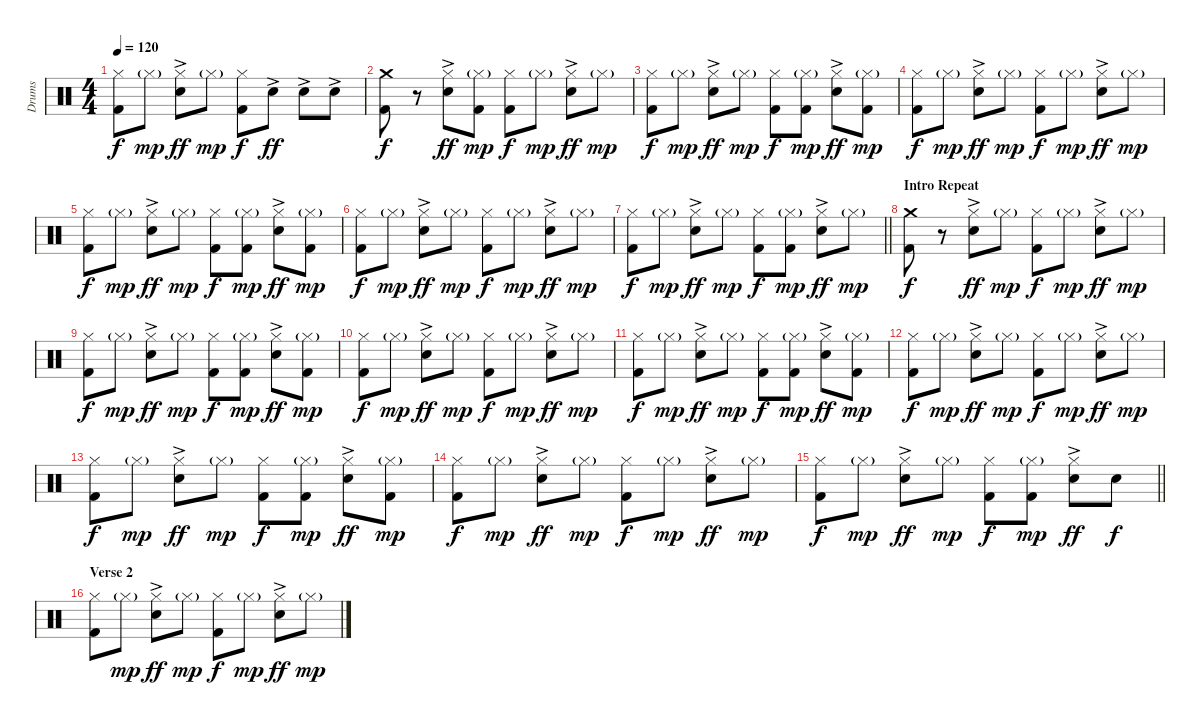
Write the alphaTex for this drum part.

\track ("Drums" "Drums") {instrument percussion}
\staff {score}
\articulation defaults
\ts (4 4)
\tempo 120
\clef neutral
\ks c
("Hi-Hat (closed)" "Kick (hit) 2").8{dy f} "Hi-Hat (closed)"{g}.8{dy mp} ("Hi-Hat (closed)" "Snare (hit) 2"{ac}).8{dy ff} "Hi-Hat (closed)"{g}.8{dy mp} ("Hi-Hat (closed)" "Kick (hit) 2").8{dy f} "Snare (hit) 2"{ac}.8{dy ff} "Snare (hit) 2"{ac}.8 "Snare (hit) 2"{ac}.8 |
("Crash medium (hit)" "Kick (hit) 2").8{dy f} r.8 ("Hi-Hat (closed)" "Snare (hit) 2"{ac}).8{dy ff} ("Hi-Hat (closed)"{g} "Kick (hit) 2").8{dy mp} ("Hi-Hat (closed)" "Kick (hit) 2").8{dy f} "Hi-Hat (closed)"{g}.8{dy mp} ("Hi-Hat (closed)" "Snare (hit) 2"{ac}).8{dy ff} "Hi-Hat (closed)"{g}.8{dy mp} |
("Hi-Hat (closed)" "Kick (hit) 2").8{dy f} "Hi-Hat (closed)"{g}.8{dy mp} ("Hi-Hat (closed)" "Snare (hit) 2"{ac}).8{dy ff} "Hi-Hat (closed)"{g}.8{dy mp} ("Hi-Hat (closed)" "Kick (hit) 2").8{dy f} ("Hi-Hat (closed)"{g} "Kick (hit) 2").8{dy mp} ("Hi-Hat (closed)" "Snare (hit) 2"{ac}).8{dy ff} ("Hi-Hat (closed)"{g} "Kick (hit) 2").8{dy mp} |
("Hi-Hat (closed)" "Kick (hit) 2").8{dy f} "Hi-Hat (closed)"{g}.8{dy mp} ("Hi-Hat (closed)" "Snare (hit) 2"{ac}).8{dy ff} "Hi-Hat (closed)"{g}.8{dy mp} ("Hi-Hat (closed)" "Kick (hit) 2").8{dy f} "Hi-Hat (closed)"{g}.8{dy mp} ("Hi-Hat (closed)" "Snare (hit) 2"{ac}).8{dy ff} "Hi-Hat (closed)"{g}.8{dy mp} |
("Hi-Hat (closed)" "Kick (hit) 2").8{dy f} "Hi-Hat (closed)"{g}.8{dy mp} ("Hi-Hat (closed)" "Snare (hit) 2"{ac}).8{dy ff} "Hi-Hat (closed)"{g}.8{dy mp} ("Hi-Hat (closed)" "Kick (hit) 2").8{dy f} ("Hi-Hat (closed)"{g} "Kick (hit) 2").8{dy mp} ("Hi-Hat (closed)" "Snare (hit) 2"{ac}).8{dy ff} ("Hi-Hat (closed)"{g} "Kick (hit) 2").8{dy mp} |
("Hi-Hat (closed)" "Kick (hit) 2").8{dy f} "Hi-Hat (closed)"{g}.8{dy mp} ("Hi-Hat (closed)" "Snare (hit) 2"{ac}).8{dy ff} "Hi-Hat (closed)"{g}.8{dy mp} ("Hi-Hat (closed)" "Kick (hit) 2").8{dy f} "Hi-Hat (closed)"{g}.8{dy mp} ("Hi-Hat (closed)" "Snare (hit) 2"{ac}).8{dy ff} "Hi-Hat (closed)"{g}.8{dy mp} |
\barLineRight lightlight
("Hi-Hat (closed)" "Kick (hit) 2").8{dy f} "Hi-Hat (closed)"{g}.8{dy mp} ("Hi-Hat (closed)" "Snare (hit) 2"{ac}).8{dy ff} "Hi-Hat (closed)"{g}.8{dy mp} ("Hi-Hat (closed)" "Kick (hit) 2").8{dy f} ("Hi-Hat (closed)"{g} "Kick (hit) 2").8{dy mp} ("Hi-Hat (closed)" "Snare (hit) 2"{ac}).8{dy ff} "Hi-Hat (closed)"{g}.8{dy mp} |
\section ("" "Intro Repeat")
("Crash medium (hit)" "Kick (hit) 2").8{dy f} r.8 ("Hi-Hat (closed)" "Snare (hit) 2"{ac}).8{dy ff} "Hi-Hat (closed)"{g}.8{dy mp} ("Hi-Hat (closed)" "Kick (hit) 2").8{dy f} "Hi-Hat (closed)"{g}.8{dy mp} ("Hi-Hat (closed)" "Snare (hit) 2"{ac}).8{dy ff} "Hi-Hat (closed)"{g}.8{dy mp} |
("Hi-Hat (closed)" "Kick (hit) 2").8{dy f} "Hi-Hat (closed)"{g}.8{dy mp} ("Hi-Hat (closed)" "Snare (hit) 2"{ac}).8{dy ff} "Hi-Hat (closed)"{g}.8{dy mp} ("Hi-Hat (closed)" "Kick (hit) 2").8{dy f} ("Hi-Hat (closed)"{g} "Kick (hit) 2").8{dy mp} ("Hi-Hat (closed)" "Snare (hit) 2"{ac}).8{dy ff} ("Hi-Hat (closed)"{g} "Kick (hit) 2").8{dy mp} |
("Hi-Hat (closed)" "Kick (hit) 2").8{dy f} "Hi-Hat (closed)"{g}.8{dy mp} ("Hi-Hat (closed)" "Snare (hit) 2"{ac}).8{dy ff} "Hi-Hat (closed)"{g}.8{dy mp} ("Hi-Hat (closed)" "Kick (hit) 2").8{dy f} "Hi-Hat (closed)"{g}.8{dy mp} ("Hi-Hat (closed)" "Snare (hit) 2"{ac}).8{dy ff} "Hi-Hat (closed)"{g}.8{dy mp} |
("Hi-Hat (closed)" "Kick (hit) 2").8{dy f} "Hi-Hat (closed)"{g}.8{dy mp} ("Hi-Hat (closed)" "Snare (hit) 2"{ac}).8{dy ff} "Hi-Hat (closed)"{g}.8{dy mp} ("Hi-Hat (closed)" "Kick (hit) 2").8{dy f} ("Hi-Hat (closed)"{g} "Kick (hit) 2").8{dy mp} ("Hi-Hat (closed)" "Snare (hit) 2"{ac}).8{dy ff} ("Hi-Hat (closed)"{g} "Kick (hit) 2").8{dy mp} |
("Hi-Hat (closed)" "Kick (hit) 2").8{dy f} "Hi-Hat (closed)"{g}.8{dy mp} ("Hi-Hat (closed)" "Snare (hit) 2"{ac}).8{dy ff} "Hi-Hat (closed)"{g}.8{dy mp} ("Hi-Hat (closed)" "Kick (hit) 2").8{dy f} "Hi-Hat (closed)"{g}.8{dy mp} ("Hi-Hat (closed)" "Snare (hit) 2"{ac}).8{dy ff} "Hi-Hat (closed)"{g}.8{dy mp} |
("Hi-Hat (closed)" "Kick (hit) 2").8{dy f} "Hi-Hat (closed)"{g}.8{dy mp} ("Hi-Hat (closed)" "Snare (hit) 2"{ac}).8{dy ff} "Hi-Hat (closed)"{g}.8{dy mp} ("Hi-Hat (closed)" "Kick (hit) 2").8{dy f} ("Hi-Hat (closed)"{g} "Kick (hit) 2").8{dy mp} ("Hi-Hat (closed)" "Snare (hit) 2"{ac}).8{dy ff} ("Hi-Hat (closed)"{g} "Kick (hit) 2").8{dy mp} |
("Hi-Hat (closed)" "Kick (hit) 2").8{dy f} "Hi-Hat (closed)"{g}.8{dy mp} ("Hi-Hat (closed)" "Snare (hit) 2"{ac}).8{dy ff} "Hi-Hat (closed)"{g}.8{dy mp} ("Hi-Hat (closed)" "Kick (hit) 2").8{dy f} "Hi-Hat (closed)"{g}.8{dy mp} ("Hi-Hat (closed)" "Snare (hit) 2"{ac}).8{dy ff} "Hi-Hat (closed)"{g}.8{dy mp} |
\barLineRight lightlight
("Hi-Hat (closed)" "Kick (hit) 2").8{dy f} "Hi-Hat (closed)"{g}.8{dy mp} ("Hi-Hat (closed)" "Snare (hit) 2"{ac}).8{dy ff} "Hi-Hat (closed)"{g}.8{dy mp} ("Hi-Hat (closed)" "Kick (hit) 2").8{dy f} ("Hi-Hat (closed)"{g} "Kick (hit) 2").8{dy mp} ("Hi-Hat (closed)" "Snare (hit) 2"{ac}).8{dy ff} "Snare (hit) 2".8{dy f} |
\section ("" "Verse 2")
("Hi-Hat (closed)" "Kick (hit) 2").8 "Hi-Hat (closed)"{g}.8{dy mp} ("Hi-Hat (closed)" "Snare (hit) 2"{ac}).8{dy ff} "Hi-Hat (closed)"{g}.8{dy mp} ("Hi-Hat (closed)" "Kick (hit) 2").8{dy f} "Hi-Hat (closed)"{g}.8{dy mp} ("Hi-Hat (closed)" "Snare (hit) 2"{ac}).8{dy ff} "Hi-Hat (closed)"{g}.8{dy mp}
